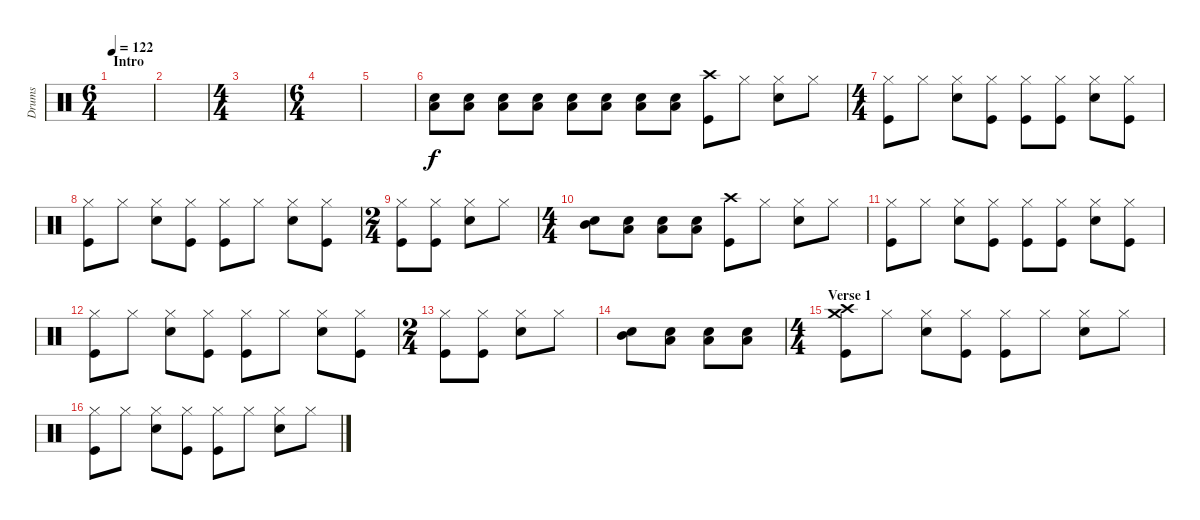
\track ("Drums" "Drums") {instrument percussion}
\staff {score}
\articulation defaults
\ts (6 4)
\section ("" "Intro")
\tempo 122
\clef neutral
\ks c
|
|
\ts (4 4)
|
\ts (6 4)
|
|
("Low Tom (hit)" "Snare (hit) 2").8 ("Low Tom (hit)" "Snare (hit) 2").8 ("Low Tom (hit)" "Snare (hit) 2").8 ("Low Tom (hit)" "Snare (hit) 2").8 ("Low Tom (hit)" "Snare (hit) 2").8 ("Low Tom (hit)" "Snare (hit) 2").8 ("Low Tom (hit)" "Snare (hit) 2").8 ("Low Tom (hit)" "Snare (hit) 2").8 ("Crash high (hit)" "Kick (hit)").8 "Hi-Hat (closed)".8 ("Hi-Hat (closed)" "Snare (hit) 2").8 "Hi-Hat (closed)".8 |
\ts (4 4)
("Hi-Hat (closed)" "Kick (hit)").8 "Hi-Hat (closed)".8 ("Hi-Hat (closed)" "Snare (hit) 2").8 ("Hi-Hat (closed)" "Kick (hit)").8 ("Hi-Hat (closed)" "Kick (hit)").8 ("Hi-Hat (closed)" "Kick (hit)").8 ("Hi-Hat (closed)" "Snare (hit) 2").8 ("Hi-Hat (closed)" "Kick (hit)").8 |
("Hi-Hat (closed)" "Kick (hit)").8 "Hi-Hat (closed)".8 ("Hi-Hat (closed)" "Snare (hit) 2").8 ("Hi-Hat (closed)" "Kick (hit)").8 ("Hi-Hat (closed)" "Kick (hit)").8 "Hi-Hat (closed)".8 ("Hi-Hat (closed)" "Snare (hit) 2").8 ("Hi-Hat (closed)" "Kick (hit)").8 |
\ts (2 4)
("Hi-Hat (closed)" "Kick (hit)").8 ("Hi-Hat (closed)" "Kick (hit)").8 ("Hi-Hat (closed)" "Snare (hit) 2").8 "Hi-Hat (closed)".8 |
\ts (4 4)
("Mid Tom (hit)" "Snare (hit) 2").8 ("Low Tom (hit)" "Snare (hit) 2").8 ("Low Floor Tom (hit)" "Snare (hit) 2").8 ("Low Floor Tom (hit)" "Snare (hit) 2").8 ("Crash high (hit)" "Kick (hit)").8 "Hi-Hat (closed)".8 ("Hi-Hat (closed)" "Snare (hit) 2").8 "Hi-Hat (closed)".8 |
("Hi-Hat (closed)" "Kick (hit)").8 "Hi-Hat (closed)".8 ("Hi-Hat (closed)" "Snare (hit) 2").8 ("Hi-Hat (closed)" "Kick (hit)").8 ("Hi-Hat (closed)" "Kick (hit)").8 ("Hi-Hat (closed)" "Kick (hit)").8 ("Hi-Hat (closed)" "Snare (hit) 2").8 ("Hi-Hat (closed)" "Kick (hit)").8 |
("Hi-Hat (closed)" "Kick (hit)").8 "Hi-Hat (closed)".8 ("Hi-Hat (closed)" "Snare (hit) 2").8 ("Hi-Hat (closed)" "Kick (hit)").8 ("Hi-Hat (closed)" "Kick (hit)").8 "Hi-Hat (closed)".8 ("Hi-Hat (closed)" "Snare (hit) 2").8 ("Hi-Hat (closed)" "Kick (hit)").8 |
\ts (2 4)
("Hi-Hat (closed)" "Kick (hit)").8 ("Hi-Hat (closed)" "Kick (hit)").8 ("Hi-Hat (closed)" "Snare (hit) 2").8 "Hi-Hat (closed)".8 |
("Mid Tom (hit)" "Snare (hit) 2").8 ("Low Tom (hit)" "Snare (hit) 2").8 ("Low Floor Tom (hit)" "Snare (hit) 2").8 ("Low Floor Tom (hit)" "Snare (hit) 2").8 |
\ts (4 4)
\section ("" "Verse 1")
("Crash high (hit)" "Crash medium (hit)" "Kick (hit)").8 "Hi-Hat (closed)".8 ("Hi-Hat (closed)" "Snare (hit) 2").8 ("Hi-Hat (closed)" "Kick (hit)").8 ("Hi-Hat (closed)" "Kick (hit)").8 "Hi-Hat (closed)".8 ("Hi-Hat (closed)" "Snare (hit) 2").8 "Hi-Hat (closed)".8 |
("Hi-Hat (closed)" "Kick (hit)").8 "Hi-Hat (closed)".8 ("Hi-Hat (closed)" "Snare (hit) 2").8 ("Hi-Hat (closed)" "Kick (hit)").8 ("Hi-Hat (closed)" "Kick (hit)").8 "Hi-Hat (closed)".8 ("Hi-Hat (closed)" "Snare (hit) 2").8 "Hi-Hat (closed)".8
